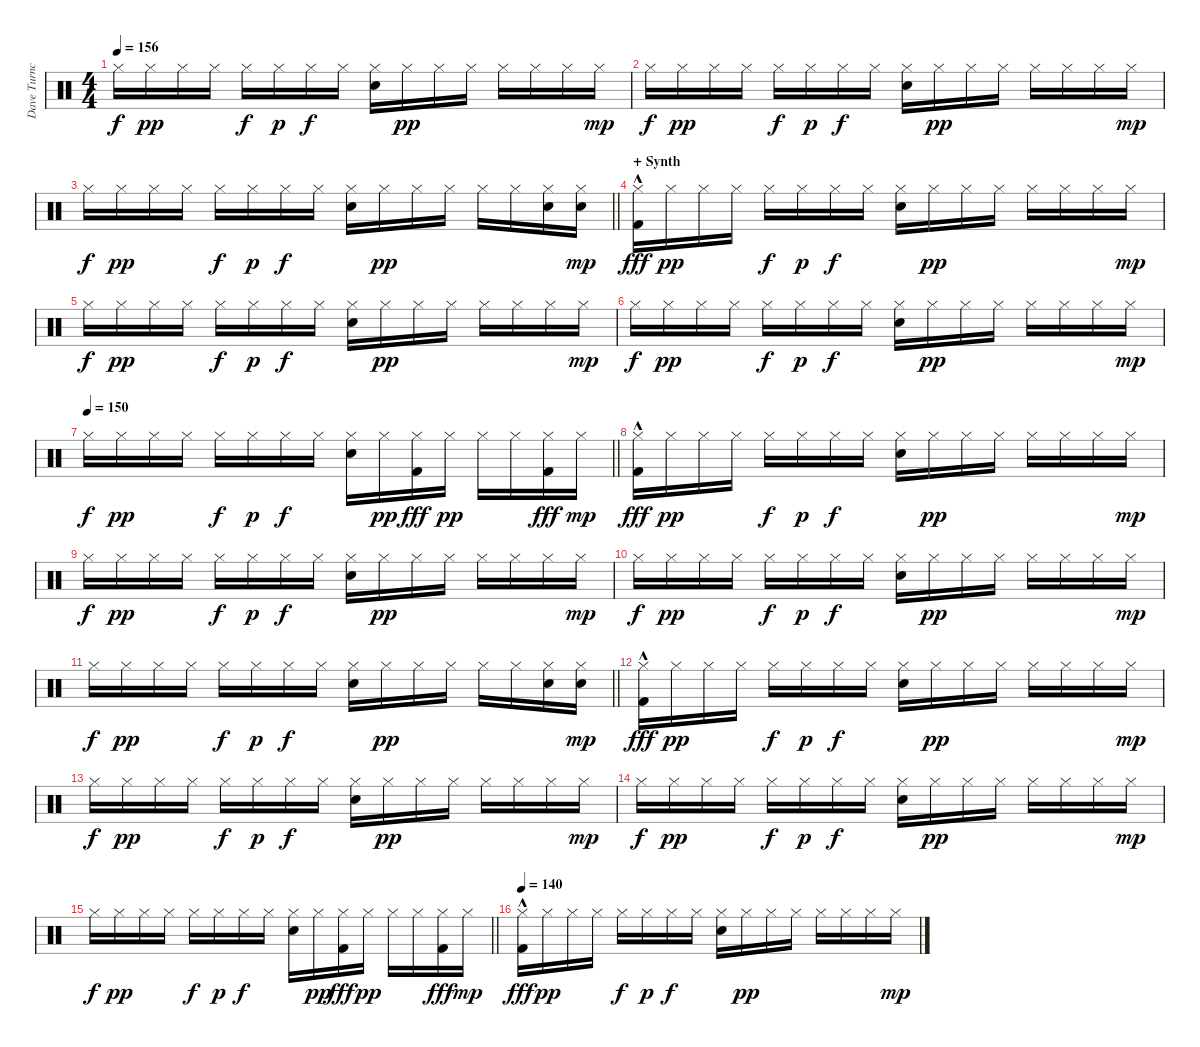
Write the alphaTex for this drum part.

\track ("Dave Turncrantz" "Dave Turnc") {instrument percussion}
\staff {score}
\articulation defaults
\ts (4 4)
\section ("" "")
\tempo 156
\clef neutral
\ks c "Hi-Hat (closed)".16{dy f} "Hi-Hat (closed)".16{dy pp} "Hi-Hat (closed)".16 "Hi-Hat (closed)".16 "Hi-Hat (closed)".16{dy f} "Hi-Hat (closed)".16{dy p} "Hi-Hat (closed)".16{dy f} "Hi-Hat (closed)".16
("Hi-Hat (closed)" "Electric Snare (hit)").16 "Hi-Hat (closed)".16{dy pp} "Hi-Hat (closed)".16 "Hi-Hat (closed)".16 "Hi-Hat (closed)".16 "Hi-Hat (closed)".16 "Hi-Hat (closed)".16 "Hi-Hat (closed)".16{dy mp} |
"Hi-Hat (closed)".16{dy f} "Hi-Hat (closed)".16{dy pp} "Hi-Hat (closed)".16 "Hi-Hat (closed)".16 "Hi-Hat (closed)".16{dy f} "Hi-Hat (closed)".16{dy p} "Hi-Hat (closed)".16{dy f} "Hi-Hat (closed)".16 ("Hi-Hat (closed)" "Electric Snare (hit)").16 "Hi-Hat (closed)".16{dy pp} "Hi-Hat (closed)".16 "Hi-Hat (closed)".16 "Hi-Hat (closed)".16 "Hi-Hat (closed)".16 "Hi-Hat (closed)".16 "Hi-Hat (closed)".16{dy mp} |
\barLineRight lightlight "Hi-Hat (closed)".16{dy f} "Hi-Hat (closed)".16{dy pp} "Hi-Hat (closed)".16 "Hi-Hat (closed)".16 "Hi-Hat (closed)".16{dy f} "Hi-Hat (closed)".16{dy p} "Hi-Hat (closed)".16{dy f} "Hi-Hat (closed)".16
("Hi-Hat (closed)" "Electric Snare (hit)").16 "Hi-Hat (closed)".16{dy pp} "Hi-Hat (closed)".16 "Hi-Hat (closed)".16 "Hi-Hat (closed)".16 "Hi-Hat (closed)".16 ("Hi-Hat (closed)" "Electric Snare (hit)").16 ("Hi-Hat (closed)" "Electric Snare (hit)").16{dy mp} |
\section ("" "+ Synth")
("Hi-Hat (closed)" "Kick (hit) 2"{hac}).16{dy fff} "Hi-Hat (closed)".16{dy pp} "Hi-Hat (closed)".16 "Hi-Hat (closed)".16 "Hi-Hat (closed)".16{dy f} "Hi-Hat (closed)".16{dy p} "Hi-Hat (closed)".16{dy f} "Hi-Hat (closed)".16 ("Hi-Hat (closed)" "Electric Snare (hit)").16 "Hi-Hat (closed)".16{dy pp} "Hi-Hat (closed)".16 "Hi-Hat (closed)".16 "Hi-Hat (closed)".16 "Hi-Hat (closed)".16 "Hi-Hat (closed)".16 "Hi-Hat (closed)".16{dy mp} |
"Hi-Hat (closed)".16{dy f} "Hi-Hat (closed)".16{dy pp} "Hi-Hat (closed)".16 "Hi-Hat (closed)".16 "Hi-Hat (closed)".16{dy f} "Hi-Hat (closed)".16{dy p} "Hi-Hat (closed)".16{dy f} "Hi-Hat (closed)".16 ("Hi-Hat (closed)" "Electric Snare (hit)").16 "Hi-Hat (closed)".16{dy pp} "Hi-Hat (closed)".16 "Hi-Hat (closed)".16 "Hi-Hat (closed)".16 "Hi-Hat (closed)".16 "Hi-Hat (closed)".16 "Hi-Hat (closed)".16{dy mp} |
"Hi-Hat (closed)".16{dy f} "Hi-Hat (closed)".16{dy pp} "Hi-Hat (closed)".16 "Hi-Hat (closed)".16 "Hi-Hat (closed)".16{dy f} "Hi-Hat (closed)".16{dy p} "Hi-Hat (closed)".16{dy f} "Hi-Hat (closed)".16 ("Hi-Hat (closed)" "Electric Snare (hit)").16 "Hi-Hat (closed)".16{dy pp} "Hi-Hat (closed)".16 "Hi-Hat (closed)".16 "Hi-Hat (closed)".16 "Hi-Hat (closed)".16 "Hi-Hat (closed)".16 "Hi-Hat (closed)".16{dy mp} |
\tempo 150
\barLineRight lightlight "Hi-Hat (closed)".16{dy f} "Hi-Hat (closed)".16{dy pp} "Hi-Hat (closed)".16 "Hi-Hat (closed)".16 "Hi-Hat (closed)".16{dy f} "Hi-Hat (closed)".16{dy p} "Hi-Hat (closed)".16{dy f} "Hi-Hat (closed)".16
("Hi-Hat (closed)" "Electric Snare (hit)").16 "Hi-Hat (closed)".16{dy pp} ("Hi-Hat (closed)" "Kick (hit) 2").16{dy fff} "Hi-Hat (closed)".16{dy pp} "Hi-Hat (closed)".16 "Hi-Hat (closed)".16 ("Hi-Hat (closed)" "Kick (hit) 2").16{dy fff} "Hi-Hat (closed)".16{dy mp} |
\section ("" "")
("Hi-Hat (closed)" "Kick (hit) 2"{hac}).16{dy fff} "Hi-Hat (closed)".16{dy pp} "Hi-Hat (closed)".16 "Hi-Hat (closed)".16 "Hi-Hat (closed)".16{dy f} "Hi-Hat (closed)".16{dy p} "Hi-Hat (closed)".16{dy f} "Hi-Hat (closed)".16 ("Hi-Hat (closed)" "Electric Snare (hit)").16 "Hi-Hat (closed)".16{dy pp} "Hi-Hat (closed)".16 "Hi-Hat (closed)".16 "Hi-Hat (closed)".16 "Hi-Hat (closed)".16 "Hi-Hat (closed)".16 "Hi-Hat (closed)".16{dy mp} |
"Hi-Hat (closed)".16{dy f} "Hi-Hat (closed)".16{dy pp} "Hi-Hat (closed)".16 "Hi-Hat (closed)".16 "Hi-Hat (closed)".16{dy f} "Hi-Hat (closed)".16{dy p} "Hi-Hat (closed)".16{dy f} "Hi-Hat (closed)".16 ("Hi-Hat (closed)" "Electric Snare (hit)").16 "Hi-Hat (closed)".16{dy pp} "Hi-Hat (closed)".16 "Hi-Hat (closed)".16 "Hi-Hat (closed)".16 "Hi-Hat (closed)".16 "Hi-Hat (closed)".16 "Hi-Hat (closed)".16{dy mp} |
"Hi-Hat (closed)".16{dy f} "Hi-Hat (closed)".16{dy pp} "Hi-Hat (closed)".16 "Hi-Hat (closed)".16 "Hi-Hat (closed)".16{dy f} "Hi-Hat (closed)".16{dy p} "Hi-Hat (closed)".16{dy f} "Hi-Hat (closed)".16 ("Hi-Hat (closed)" "Electric Snare (hit)").16 "Hi-Hat (closed)".16{dy pp} "Hi-Hat (closed)".16 "Hi-Hat (closed)".16 "Hi-Hat (closed)".16 "Hi-Hat (closed)".16 "Hi-Hat (closed)".16 "Hi-Hat (closed)".16{dy mp} |
\barLineRight lightlight "Hi-Hat (closed)".16{dy f} "Hi-Hat (closed)".16{dy pp} "Hi-Hat (closed)".16 "Hi-Hat (closed)".16 "Hi-Hat (closed)".16{dy f} "Hi-Hat (closed)".16{dy p} "Hi-Hat (closed)".16{dy f} "Hi-Hat (closed)".16
("Hi-Hat (closed)" "Electric Snare (hit)").16 "Hi-Hat (closed)".16{dy pp} "Hi-Hat (closed)".16 "Hi-Hat (closed)".16 "Hi-Hat (closed)".16 "Hi-Hat (closed)".16 ("Hi-Hat (closed)" "Electric Snare (hit)").16 ("Hi-Hat (closed)" "Electric Snare (hit)").16{dy mp} |
\section ("" "")
("Hi-Hat (closed)" "Kick (hit) 2"{hac}).16{dy fff} "Hi-Hat (closed)".16{dy pp} "Hi-Hat (closed)".16 "Hi-Hat (closed)".16 "Hi-Hat (closed)".16{dy f} "Hi-Hat (closed)".16{dy p} "Hi-Hat (closed)".16{dy f} "Hi-Hat (closed)".16 ("Hi-Hat (closed)" "Electric Snare (hit)").16 "Hi-Hat (closed)".16{dy pp} "Hi-Hat (closed)".16 "Hi-Hat (closed)".16 "Hi-Hat (closed)".16 "Hi-Hat (closed)".16 "Hi-Hat (closed)".16 "Hi-Hat (closed)".16{dy mp} |
"Hi-Hat (closed)".16{dy f} "Hi-Hat (closed)".16{dy pp} "Hi-Hat (closed)".16 "Hi-Hat (closed)".16 "Hi-Hat (closed)".16{dy f} "Hi-Hat (closed)".16{dy p} "Hi-Hat (closed)".16{dy f} "Hi-Hat (closed)".16 ("Hi-Hat (closed)" "Electric Snare (hit)").16 "Hi-Hat (closed)".16{dy pp} "Hi-Hat (closed)".16 "Hi-Hat (closed)".16 "Hi-Hat (closed)".16 "Hi-Hat (closed)".16 "Hi-Hat (closed)".16 "Hi-Hat (closed)".16{dy mp} |
"Hi-Hat (closed)".16{dy f} "Hi-Hat (closed)".16{dy pp} "Hi-Hat (closed)".16 "Hi-Hat (closed)".16 "Hi-Hat (closed)".16{dy f} "Hi-Hat (closed)".16{dy p} "Hi-Hat (closed)".16{dy f} "Hi-Hat (closed)".16 ("Hi-Hat (closed)" "Electric Snare (hit)").16 "Hi-Hat (closed)".16{dy pp} "Hi-Hat (closed)".16 "Hi-Hat (closed)".16 "Hi-Hat (closed)".16 "Hi-Hat (closed)".16 "Hi-Hat (closed)".16 "Hi-Hat (closed)".16{dy mp} |
\barLineRight lightlight "Hi-Hat (closed)".16{dy f} "Hi-Hat (closed)".16{dy pp} "Hi-Hat (closed)".16 "Hi-Hat (closed)".16 "Hi-Hat (closed)".16{dy f} "Hi-Hat (closed)".16{dy p} "Hi-Hat (closed)".16{dy f} "Hi-Hat (closed)".16
("Hi-Hat (closed)" "Electric Snare (hit)").16 "Hi-Hat (closed)".16{dy pp} ("Hi-Hat (closed)" "Kick (hit) 2").16{dy fff} "Hi-Hat (closed)".16{dy pp} "Hi-Hat (closed)".16 "Hi-Hat (closed)".16 ("Hi-Hat (closed)" "Kick (hit) 2").16{dy fff} "Hi-Hat (closed)".16{dy mp} |
\section ("" "")
\tempo 140
("Hi-Hat (closed)" "Kick (hit) 2"{hac}).16{dy fff} "Hi-Hat (closed)".16{dy pp} "Hi-Hat (closed)".16 "Hi-Hat (closed)".16 "Hi-Hat (closed)".16{dy f} "Hi-Hat (closed)".16{dy p} "Hi-Hat (closed)".16{dy f} "Hi-Hat (closed)".16 ("Hi-Hat (closed)" "Electric Snare (hit)").16 "Hi-Hat (closed)".16{dy pp} "Hi-Hat (closed)".16 "Hi-Hat (closed)".16 "Hi-Hat (closed)".16 "Hi-Hat (closed)".16 "Hi-Hat (closed)".16 "Hi-Hat (closed)".16{dy mp}
